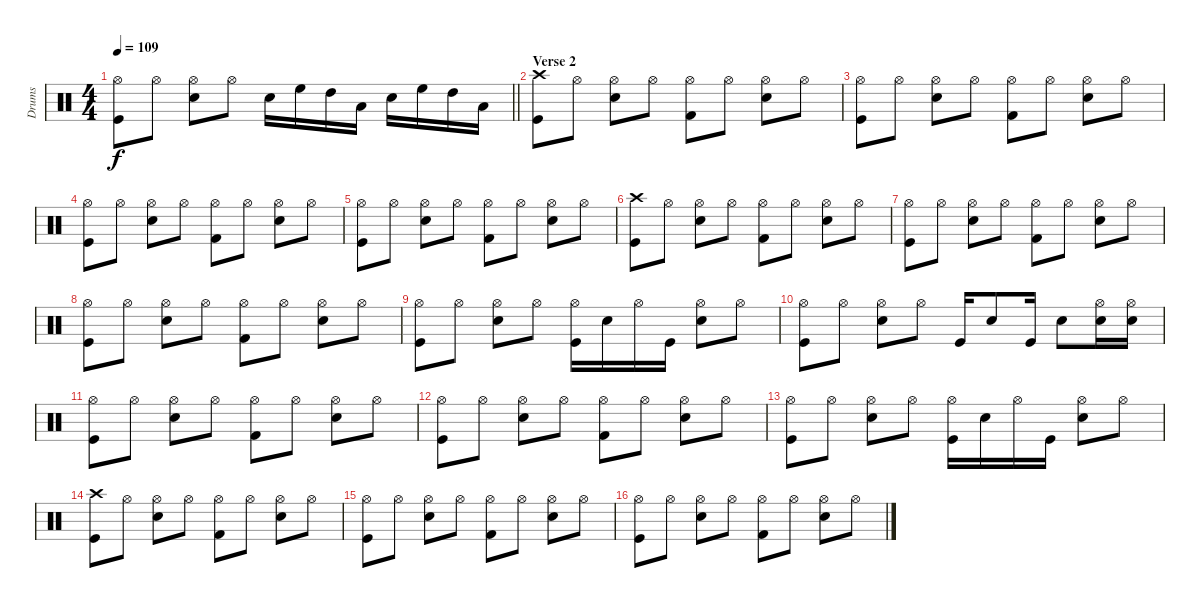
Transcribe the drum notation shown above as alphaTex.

\track ("Drums" "Drums") {instrument percussion}
\staff {score}
\articulation defaults
\ts (4 4)
\tempo 109
\clef neutral
\barLineRight lightlight
\ks c
("Kick (hit)" "Hi-Hat (open)").8{dy f} "Hi-Hat (open)".8 ("Snare (hit) 2" "Hi-Hat (open)").8 "Hi-Hat (open)".8 "Snare (hit) 2".16 "High Floor Tom (hit)".16 "High Tom (hit)".16 "Low Floor Tom (hit)".16 "Snare (hit) 2".16 "High Floor Tom (hit)".16 "High Tom (hit)".16 "Low Floor Tom (hit)".16 |
\section ("" "Verse 2")
("Crash high (hit)" "Kick (hit)").8 "Hi-Hat (open)".8 ("Hi-Hat (open)" "Snare (hit) 2").8 "Hi-Hat (open)".8 ("Hi-Hat (open)" "Kick (hit) 2").8 "Hi-Hat (open)".8 ("Hi-Hat (open)" "Snare (hit) 2").8 "Hi-Hat (open)".8 |
("Hi-Hat (open)" "Kick (hit)").8 "Hi-Hat (open)".8 ("Hi-Hat (open)" "Snare (hit) 2").8 "Hi-Hat (open)".8 ("Hi-Hat (open)" "Kick (hit) 2").8 "Hi-Hat (open)".8 ("Hi-Hat (open)" "Snare (hit) 2").8 "Hi-Hat (open)".8 |
("Hi-Hat (open)" "Kick (hit)").8 "Hi-Hat (open)".8 ("Hi-Hat (open)" "Snare (hit) 2").8 "Hi-Hat (open)".8 ("Hi-Hat (open)" "Kick (hit) 2").8 "Hi-Hat (open)".8 ("Hi-Hat (open)" "Snare (hit) 2").8 "Hi-Hat (open)".8 |
("Hi-Hat (open)" "Kick (hit)").8 "Hi-Hat (open)".8 ("Hi-Hat (open)" "Snare (hit) 2").8 "Hi-Hat (open)".8 ("Hi-Hat (open)" "Kick (hit) 2").8 "Hi-Hat (open)".8 ("Hi-Hat (open)" "Snare (hit) 2").8 "Hi-Hat (open)".8 |
("Crash high (hit)" "Kick (hit)").8 "Hi-Hat (open)".8 ("Hi-Hat (open)" "Snare (hit) 2").8 "Hi-Hat (open)".8 ("Hi-Hat (open)" "Kick (hit) 2").8 "Hi-Hat (open)".8 ("Hi-Hat (open)" "Snare (hit) 2").8 "Hi-Hat (open)".8 |
("Hi-Hat (open)" "Kick (hit)").8 "Hi-Hat (open)".8 ("Hi-Hat (open)" "Snare (hit) 2").8 "Hi-Hat (open)".8 ("Hi-Hat (open)" "Kick (hit) 2").8 "Hi-Hat (open)".8 ("Hi-Hat (open)" "Snare (hit) 2").8 "Hi-Hat (open)".8 |
("Hi-Hat (open)" "Kick (hit)").8 "Hi-Hat (open)".8 ("Hi-Hat (open)" "Snare (hit) 2").8 "Hi-Hat (open)".8 ("Hi-Hat (open)" "Kick (hit) 2").8 "Hi-Hat (open)".8 ("Hi-Hat (open)" "Snare (hit) 2").8 "Hi-Hat (open)".8 |
("Kick (hit)" "Hi-Hat (open)").8 "Hi-Hat (open)".8 ("Snare (hit) 2" "Hi-Hat (open)").8 "Hi-Hat (open)".8 ("Hi-Hat (open)" "Kick (hit)").16 "Snare (hit) 2".16 "Hi-Hat (open)".16 "Kick (hit)".16 ("Snare (hit) 2" "Hi-Hat (open)").8 "Hi-Hat (open)".8 |
("Kick (hit)" "Hi-Hat (open)").8 "Hi-Hat (open)".8 ("Snare (hit) 2" "Hi-Hat (open)").8 "Hi-Hat (open)".8 "Kick (hit)".16 "Snare (hit) 2".8 "Kick (hit)".16 "Snare (hit) 2".8 ("Hi-Hat (open)" "Snare (hit) 2").16 ("Hi-Hat (open)" "Snare (hit) 2").16 |
("Hi-Hat (open)" "Kick (hit)").8 "Hi-Hat (open)".8 ("Hi-Hat (open)" "Snare (hit) 2").8 "Hi-Hat (open)".8 ("Hi-Hat (open)" "Kick (hit) 2").8 "Hi-Hat (open)".8 ("Hi-Hat (open)" "Snare (hit) 2").8 "Hi-Hat (open)".8 |
("Hi-Hat (open)" "Kick (hit)").8 "Hi-Hat (open)".8 ("Hi-Hat (open)" "Snare (hit) 2").8 "Hi-Hat (open)".8 ("Hi-Hat (open)" "Kick (hit) 2").8 "Hi-Hat (open)".8 ("Hi-Hat (open)" "Snare (hit) 2").8 "Hi-Hat (open)".8 |
("Kick (hit)" "Hi-Hat (open)").8 "Hi-Hat (open)".8 ("Snare (hit) 2" "Hi-Hat (open)").8 "Hi-Hat (open)".8 ("Hi-Hat (open)" "Kick (hit)").16 "Snare (hit) 2".16 "Hi-Hat (open)".16 "Kick (hit)".16 ("Snare (hit) 2" "Hi-Hat (open)").8 "Hi-Hat (open)".8 |
("Crash high (hit)" "Kick (hit)").8 "Hi-Hat (open)".8 ("Hi-Hat (open)" "Snare (hit) 2").8 "Hi-Hat (open)".8 ("Hi-Hat (open)" "Kick (hit) 2").8 "Hi-Hat (open)".8 ("Hi-Hat (open)" "Snare (hit) 2").8 "Hi-Hat (open)".8 |
("Hi-Hat (open)" "Kick (hit)").8 "Hi-Hat (open)".8 ("Hi-Hat (open)" "Snare (hit) 2").8 "Hi-Hat (open)".8 ("Hi-Hat (open)" "Kick (hit) 2").8 "Hi-Hat (open)".8 ("Hi-Hat (open)" "Snare (hit) 2").8 "Hi-Hat (open)".8 |
("Hi-Hat (open)" "Kick (hit)").8 "Hi-Hat (open)".8 ("Hi-Hat (open)" "Snare (hit) 2").8 "Hi-Hat (open)".8 ("Hi-Hat (open)" "Kick (hit) 2").8 "Hi-Hat (open)".8 ("Hi-Hat (open)" "Snare (hit) 2").8 "Hi-Hat (open)".8
